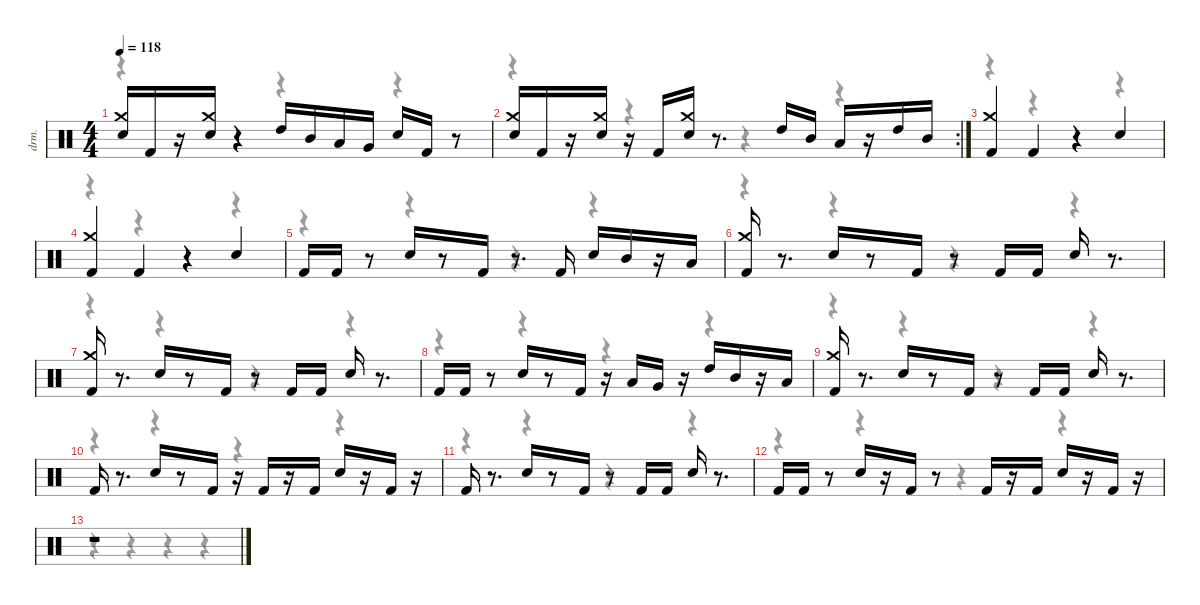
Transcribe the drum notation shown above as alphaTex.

\defaultSystemsLayout 4
\hideDynamics
\bracketExtendMode nobrackets
\track ("Drums" "drm.") {instrument percussion}
\staff {score}
\articulation defaults
\voice
\ts (4 4)
\tempo 118
\clef neutral
\ks c
("Crash medium (hit)" "Snare (hit) 2").16{dy f} "Kick (hit) 2".16 r.16 ("Crash medium (hit)" "Snare (hit) 2").16 r.4 "High Tom (hit)".16 "Mid Tom (hit)".16 "Low Tom (hit)".16 "Very Low Tom (hit)".16 "Snare (hit) 2".16 "Kick (hit) 2".16 r.8 |
\rc 2
("Crash medium (hit)" "Snare (hit) 2").16 "Kick (hit) 2".16 r.16 ("Crash medium (hit)" "Snare (hit) 2").16 r.16 "Kick (hit) 2".16 ("Crash medium (hit)" "Snare (hit) 2").16 r.8{d} "High Tom (hit)".16 "Mid Tom (hit)".16 "Low Tom (hit)".16 r.16 "High Tom (hit)".16 "Mid Tom (hit)".16 |
("Crash medium (hit)" "Kick (hit) 2").4 "Kick (hit) 2".4 r.4 "Snare (hit) 2".4 |
("Crash medium (hit)" "Kick (hit) 2").4 "Kick (hit) 2".4 r.4 "Snare (hit) 2".4 |
"Kick (hit) 2".16 "Kick (hit) 2".16 r.8 "Snare (hit) 2".16 r.8 "Kick (hit) 2".16 r.8{d} "Kick (hit) 2".16 "Snare (hit) 2".16 "Mid Tom (hit)".16 r.16 "Low Tom (hit)".16 |
("Crash medium (hit)" "Kick (hit) 2").16 r.8{d} "Snare (hit) 2".16 r.8 "Kick (hit) 2".16 r.8 "Kick (hit) 2".16 "Kick (hit) 2".16 "Snare (hit) 2".16 r.8{d} |
("Crash medium (hit)" "Kick (hit) 2").16 r.8{d} "Snare (hit) 2".16 r.8 "Kick (hit) 2".16 r.8 "Kick (hit) 2".16 "Kick (hit) 2".16 "Snare (hit) 2".16 r.8{d} |
"Kick (hit) 2".16 "Kick (hit) 2".16 r.8 "Snare (hit) 2".16 r.8 "Kick (hit) 2".16 r.16 "Low Tom (hit)".16 "Very Low Tom (hit)".16 r.16 "High Tom (hit)".16 "Mid Tom (hit)".16 r.16 "Low Tom (hit)".16 |
("Crash medium (hit)" "Kick (hit) 2").16 r.8{d} "Snare (hit) 2".16 r.8 "Kick (hit) 2".16 r.8 "Kick (hit) 2".16 "Kick (hit) 2".16 "Snare (hit) 2".16 r.8{d} |
"Kick (hit) 2".16 r.8{d} "Snare (hit) 2".16 r.8 "Kick (hit) 2".16 r.16 "Kick (hit) 2".16 r.16 "Kick (hit) 2".16 "Snare (hit) 2".16 r.16 "Kick (hit) 2".16 r.16 |
"Kick (hit) 2".16 r.8{d} "Snare (hit) 2".16 r.8 "Kick (hit) 2".16 r.8 "Kick (hit) 2".16 "Kick (hit) 2".16 "Snare (hit) 2".16 r.8{d} |
"Kick (hit) 2".16 "Kick (hit) 2".16 r.8 "Snare (hit) 2".16 r.16 "Kick (hit) 2".16 r.8 "Kick (hit) 2".16 r.16 "Kick (hit) 2".16 "Snare (hit) 2".16 r.16 "Kick (hit) 2".16 r.16 |
r.1
\voice
\clef neutral
\ottava regular
\simile none
\ks c
r.4{dy mf} r.4 r.4 r.4 |
r.4 r.4 r.4 r.4 |
r.4 r.4 r.4 r.4 |
r.4 r.4 r.4 r.4 |
r.4 r.4 r.4 r.4 |
r.4 r.4 r.4 r.4 |
r.4 r.4 r.4 r.4 |
r.4 r.4 r.4 r.4 |
r.4 r.4 r.4 r.4 |
r.4 r.4 r.4 r.4 |
r.4 r.4 r.4 r.4 |
r.4 r.4 r.4 r.4 |
r.4 r.4 r.4 r.4
